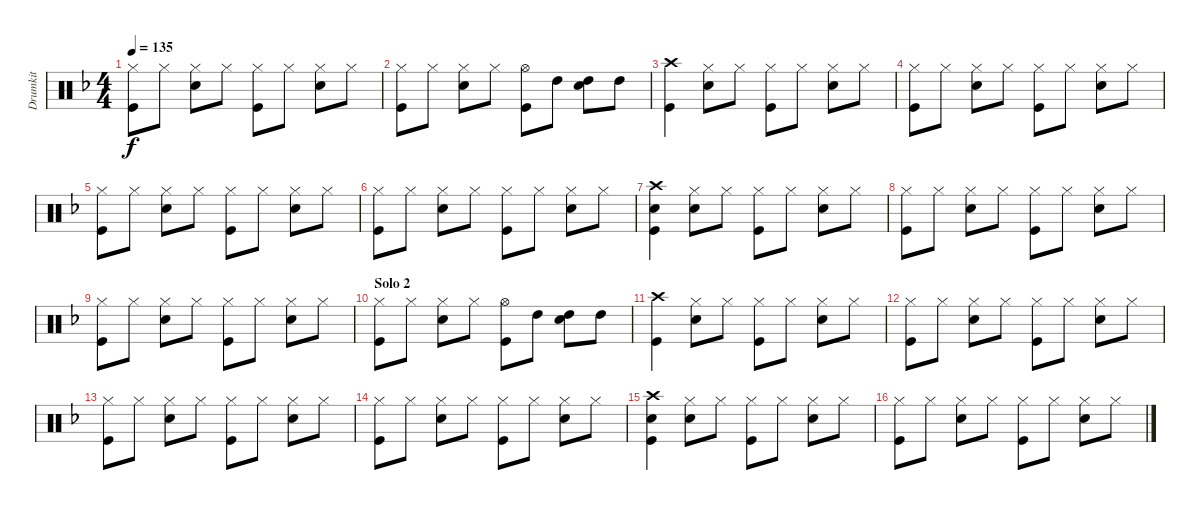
\track ("Drumkit" "Drumkit") {instrument percussion}
\staff {score}
\articulation defaults
\ts (4 4)
\tempo 135
\clef neutral
\ks f
("Hi-Hat (closed)" "Kick (hit)").8{dy f} "Hi-Hat (closed)".8 ("Hi-Hat (closed)" "Snare (hit) 2").8 "Hi-Hat (closed)".8 ("Hi-Hat (closed)" "Kick (hit)").8 "Hi-Hat (closed)".8 ("Hi-Hat (closed)" "Snare (hit) 2").8 "Hi-Hat (closed)".8 |
("Hi-Hat (closed)" "Kick (hit)").8 "Hi-Hat (closed)".8 ("Hi-Hat (closed)" "Snare (hit) 2").8 "Hi-Hat (closed)".8 ("Hi-Hat (open)" "Kick (hit)").8 "High Tom (hit)".8 ("High Tom (hit)" "Snare (hit) 2").8 "High Tom (hit)".8 |
("Crash high (hit)" "Kick (hit)").4 ("Hi-Hat (closed)" "Snare (hit) 2").8 "Hi-Hat (closed)".8 ("Hi-Hat (closed)" "Kick (hit)").8 "Hi-Hat (closed)".8 ("Hi-Hat (closed)" "Snare (hit) 2").8 "Hi-Hat (closed)".8 |
("Hi-Hat (closed)" "Kick (hit)").8 "Hi-Hat (closed)".8 ("Hi-Hat (closed)" "Snare (hit) 2").8 "Hi-Hat (closed)".8 ("Hi-Hat (closed)" "Kick (hit)").8 "Hi-Hat (closed)".8 ("Hi-Hat (closed)" "Snare (hit) 2").8 "Hi-Hat (closed)".8 |
("Hi-Hat (closed)" "Kick (hit)").8 "Hi-Hat (closed)".8 ("Hi-Hat (closed)" "Snare (hit) 2").8 "Hi-Hat (closed)".8 ("Hi-Hat (closed)" "Kick (hit)").8 "Hi-Hat (closed)".8 ("Hi-Hat (closed)" "Snare (hit) 2").8 "Hi-Hat (closed)".8 |
("Hi-Hat (closed)" "Kick (hit)").8 "Hi-Hat (closed)".8 ("Hi-Hat (closed)" "Snare (hit) 2").8 "Hi-Hat (closed)".8 ("Hi-Hat (closed)" "Kick (hit)").8 "Hi-Hat (closed)".8 ("Hi-Hat (closed)" "Snare (hit) 2").8 "Hi-Hat (closed)".8 |
("Crash high (hit)" "Snare (hit) 2" "Kick (hit)").4 ("Hi-Hat (closed)" "Snare (hit) 2").8 "Hi-Hat (closed)".8 ("Hi-Hat (closed)" "Kick (hit)").8 "Hi-Hat (closed)".8 ("Hi-Hat (closed)" "Snare (hit) 2").8 "Hi-Hat (closed)".8 |
("Hi-Hat (closed)" "Kick (hit)").8 "Hi-Hat (closed)".8 ("Hi-Hat (closed)" "Snare (hit) 2").8 "Hi-Hat (closed)".8 ("Hi-Hat (closed)" "Kick (hit)").8 "Hi-Hat (closed)".8 ("Hi-Hat (closed)" "Snare (hit) 2").8 "Hi-Hat (closed)".8 |
("Hi-Hat (closed)" "Kick (hit)").8 "Hi-Hat (closed)".8 ("Hi-Hat (closed)" "Snare (hit) 2").8 "Hi-Hat (closed)".8 ("Hi-Hat (closed)" "Kick (hit)").8 "Hi-Hat (closed)".8 ("Hi-Hat (closed)" "Snare (hit) 2").8 "Hi-Hat (closed)".8 |
\section ("" "Solo 2")
("Hi-Hat (closed)" "Kick (hit)").8 "Hi-Hat (closed)".8 ("Hi-Hat (closed)" "Snare (hit) 2").8 "Hi-Hat (closed)".8 ("Hi-Hat (open)" "Kick (hit)").8 "High Tom (hit)".8 ("High Tom (hit)" "Snare (hit) 2").8 "High Tom (hit)".8 |
("Crash high (hit)" "Kick (hit)").4 ("Hi-Hat (closed)" "Snare (hit) 2").8 "Hi-Hat (closed)".8 ("Hi-Hat (closed)" "Kick (hit)").8 "Hi-Hat (closed)".8 ("Hi-Hat (closed)" "Snare (hit) 2").8 "Hi-Hat (closed)".8 |
("Hi-Hat (closed)" "Kick (hit)").8 "Hi-Hat (closed)".8 ("Hi-Hat (closed)" "Snare (hit) 2").8 "Hi-Hat (closed)".8 ("Hi-Hat (closed)" "Kick (hit)").8 "Hi-Hat (closed)".8 ("Hi-Hat (closed)" "Snare (hit) 2").8 "Hi-Hat (closed)".8 |
("Hi-Hat (closed)" "Kick (hit)").8 "Hi-Hat (closed)".8 ("Hi-Hat (closed)" "Snare (hit) 2").8 "Hi-Hat (closed)".8 ("Hi-Hat (closed)" "Kick (hit)").8 "Hi-Hat (closed)".8 ("Hi-Hat (closed)" "Snare (hit) 2").8 "Hi-Hat (closed)".8 |
("Hi-Hat (closed)" "Kick (hit)").8 "Hi-Hat (closed)".8 ("Hi-Hat (closed)" "Snare (hit) 2").8 "Hi-Hat (closed)".8 ("Hi-Hat (closed)" "Kick (hit)").8 "Hi-Hat (closed)".8 ("Hi-Hat (closed)" "Snare (hit) 2").8 "Hi-Hat (closed)".8 |
("Crash high (hit)" "Snare (hit) 2" "Kick (hit)").4 ("Hi-Hat (closed)" "Snare (hit) 2").8 "Hi-Hat (closed)".8 ("Hi-Hat (closed)" "Kick (hit)").8 "Hi-Hat (closed)".8 ("Hi-Hat (closed)" "Snare (hit) 2").8 "Hi-Hat (closed)".8 |
("Hi-Hat (closed)" "Kick (hit)").8 "Hi-Hat (closed)".8 ("Hi-Hat (closed)" "Snare (hit) 2").8 "Hi-Hat (closed)".8 ("Hi-Hat (closed)" "Kick (hit)").8 "Hi-Hat (closed)".8 ("Hi-Hat (closed)" "Snare (hit) 2").8 "Hi-Hat (closed)".8
